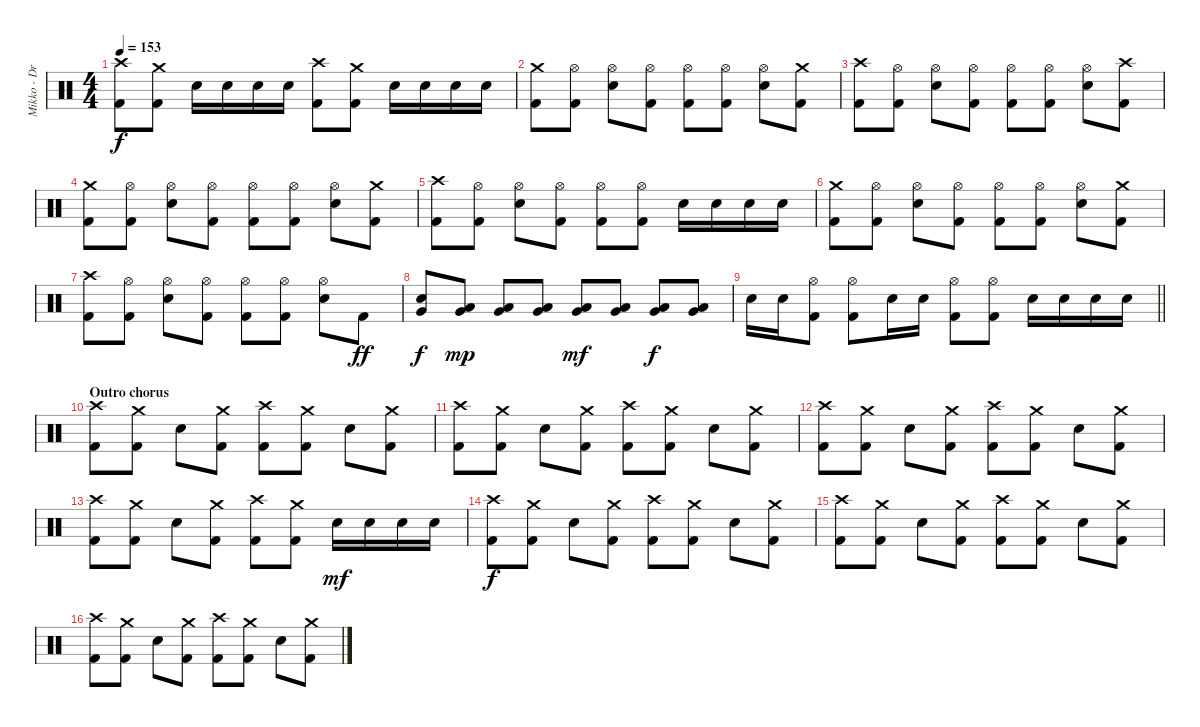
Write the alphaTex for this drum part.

\track ("Mikko - Drums" "Mikko - Dr") {instrument percussion}
\staff {score}
\articulation defaults
\ts (4 4)
\tempo 153
\clef neutral
\ks c
("Crash high (hit)" "Kick (hit) 2").8{dy f} ("Crash medium (hit)" "Kick (hit) 2").8 "Snare (hit) 2".16 "Snare (hit) 2".16 "Snare (hit) 2".16 "Snare (hit) 2".16 ("Crash high (hit)" "Kick (hit) 2").8 ("Crash medium (hit)" "Kick (hit) 2").8 "Snare (hit) 2".16 "Snare (hit) 2".16 "Snare (hit) 2".16 "Snare (hit) 2".16 |
("Crash medium (hit)" "Kick (hit) 2").8 ("Hi-Hat (open)" "Kick (hit) 2").8 ("Hi-Hat (open)" "Snare (hit) 2").8 ("Hi-Hat (open)" "Kick (hit) 2").8 ("Hi-Hat (open)" "Kick (hit) 2").8 ("Hi-Hat (open)" "Kick (hit) 2").8 ("Hi-Hat (open)" "Snare (hit) 2").8 ("Crash medium (hit)" "Kick (hit) 2").8 |
("Crash high (hit)" "Kick (hit) 2").8 ("Hi-Hat (open)" "Kick (hit) 2").8 ("Hi-Hat (open)" "Snare (hit) 2").8 ("Hi-Hat (open)" "Kick (hit) 2").8 ("Hi-Hat (open)" "Kick (hit) 2").8 ("Hi-Hat (open)" "Kick (hit) 2").8 ("Hi-Hat (open)" "Snare (hit) 2").8 ("Crash high (hit)" "Kick (hit) 2").8 |
("Crash medium (hit)" "Kick (hit) 2").8 ("Hi-Hat (open)" "Kick (hit) 2").8 ("Hi-Hat (open)" "Snare (hit) 2").8 ("Hi-Hat (open)" "Kick (hit) 2").8 ("Hi-Hat (open)" "Kick (hit) 2").8 ("Hi-Hat (open)" "Kick (hit) 2").8 ("Hi-Hat (open)" "Snare (hit) 2").8 ("Crash medium (hit)" "Kick (hit) 2").8 |
("Crash high (hit)" "Kick (hit) 2").8 ("Hi-Hat (open)" "Kick (hit) 2").8 ("Hi-Hat (open)" "Snare (hit) 2").8 ("Hi-Hat (open)" "Kick (hit) 2").8 ("Hi-Hat (open)" "Kick (hit) 2").8 ("Hi-Hat (open)" "Kick (hit) 2").8 "Snare (hit) 2".16 "Snare (hit) 2".16 "Snare (hit) 2".16 "Snare (hit) 2".16 |
("Crash medium (hit)" "Kick (hit) 2").8 ("Hi-Hat (open)" "Kick (hit) 2").8 ("Hi-Hat (open)" "Snare (hit) 2").8 ("Hi-Hat (open)" "Kick (hit) 2").8 ("Hi-Hat (open)" "Kick (hit) 2").8 ("Hi-Hat (open)" "Kick (hit) 2").8 ("Hi-Hat (open)" "Snare (hit) 2").8 ("Crash medium (hit)" "Kick (hit) 2").8 |
("Crash high (hit)" "Kick (hit) 2").8 ("Hi-Hat (open)" "Kick (hit) 2").8 ("Hi-Hat (open)" "Snare (hit) 2").8 ("Hi-Hat (open)" "Kick (hit) 2").8 ("Hi-Hat (open)" "Kick (hit) 2").8 ("Hi-Hat (open)" "Kick (hit) 2").8 ("Hi-Hat (open)" "Snare (hit) 2").8 "Kick (hit) 2".8{dy ff} |
("Snare (hit) 2" "Very Low Tom (hit)").8{dy f} ("Low Tom (hit)" "Very Low Tom (hit)").8{dy mp} ("Low Tom (hit)" "Very Low Tom (hit)").8 ("Low Tom (hit)" "Very Low Tom (hit)").8 ("Low Tom (hit)" "Very Low Tom (hit)").8{dy mf} ("Low Tom (hit)" "Very Low Tom (hit)").8 ("Low Tom (hit)" "Very Low Tom (hit)").8{dy f} ("Low Tom (hit)" "Very Low Tom (hit)").8 |
\barLineRight lightlight "Snare (hit) 2".16 "Snare (hit) 2".16
("Hi-Hat (open)" "Kick (hit) 2").8 ("Hi-Hat (open)" "Kick (hit) 2").8 "Snare (hit) 2".16 "Snare (hit) 2".16 ("Hi-Hat (open)" "Kick (hit) 2").8 ("Hi-Hat (open)" "Kick (hit) 2").8 "Snare (hit) 2".16 "Snare (hit) 2".16 "Snare (hit) 2".16 "Snare (hit) 2".16 |
\section ("" "Outro chorus")
("Crash high (hit)" "Kick (hit) 2").8 ("Crash medium (hit)" "Kick (hit) 2").8 "Snare (hit) 2".8 ("Crash medium (hit)" "Kick (hit) 2").8 ("Crash high (hit)" "Kick (hit) 2").8 ("Crash medium (hit)" "Kick (hit) 2").8 "Snare (hit) 2".8 ("Crash medium (hit)" "Kick (hit) 2").8 |
("Crash high (hit)" "Kick (hit) 2").8 ("Crash medium (hit)" "Kick (hit) 2").8 "Snare (hit) 2".8 ("Crash medium (hit)" "Kick (hit) 2").8 ("Crash high (hit)" "Kick (hit) 2").8 ("Crash medium (hit)" "Kick (hit) 2").8 "Snare (hit) 2".8 ("Crash medium (hit)" "Kick (hit) 2").8 |
("Crash high (hit)" "Kick (hit) 2").8 ("Crash medium (hit)" "Kick (hit) 2").8 "Snare (hit) 2".8 ("Crash medium (hit)" "Kick (hit) 2").8 ("Crash high (hit)" "Kick (hit) 2").8 ("Crash medium (hit)" "Kick (hit) 2").8 "Snare (hit) 2".8 ("Crash medium (hit)" "Kick (hit) 2").8 |
("Crash high (hit)" "Kick (hit) 2").8 ("Crash medium (hit)" "Kick (hit) 2").8 "Snare (hit) 2".8 ("Crash medium (hit)" "Kick (hit) 2").8 ("Crash high (hit)" "Kick (hit) 2").8 ("Crash medium (hit)" "Kick (hit) 2").8 "Snare (hit) 2".16{dy mf} "Snare (hit) 2".16 "Snare (hit) 2".16 "Snare (hit) 2".16 |
("Crash high (hit)" "Kick (hit) 2").8{dy f} ("Crash medium (hit)" "Kick (hit) 2").8 "Snare (hit) 2".8 ("Crash medium (hit)" "Kick (hit) 2").8 ("Crash high (hit)" "Kick (hit) 2").8 ("Crash medium (hit)" "Kick (hit) 2").8 "Snare (hit) 2".8 ("Crash medium (hit)" "Kick (hit) 2").8 |
("Crash high (hit)" "Kick (hit) 2").8 ("Crash medium (hit)" "Kick (hit) 2").8 "Snare (hit) 2".8 ("Crash medium (hit)" "Kick (hit) 2").8 ("Crash high (hit)" "Kick (hit) 2").8 ("Crash medium (hit)" "Kick (hit) 2").8 "Snare (hit) 2".8 ("Crash medium (hit)" "Kick (hit) 2").8 |
("Crash high (hit)" "Kick (hit) 2").8 ("Crash medium (hit)" "Kick (hit) 2").8 "Snare (hit) 2".8 ("Crash medium (hit)" "Kick (hit) 2").8 ("Crash high (hit)" "Kick (hit) 2").8 ("Crash medium (hit)" "Kick (hit) 2").8 "Snare (hit) 2".8 ("Crash medium (hit)" "Kick (hit) 2").8
